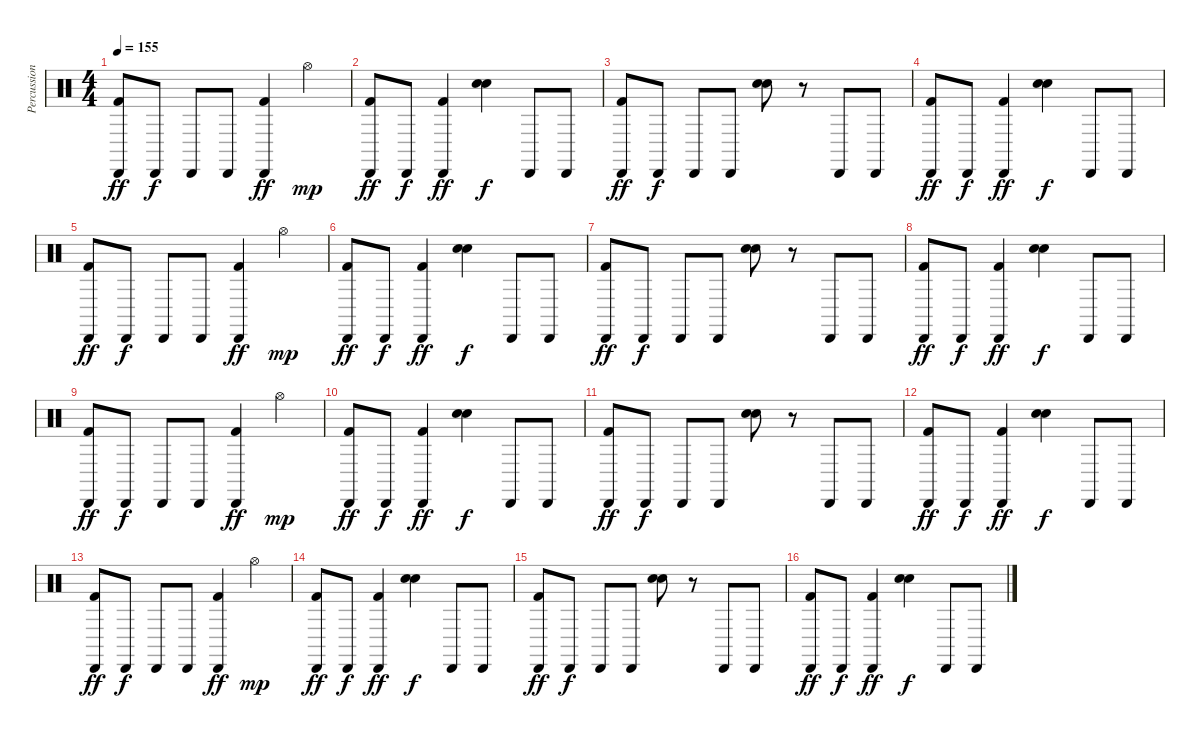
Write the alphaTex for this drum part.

\track ("Percussion" "Percussion") {instrument percussion}
\staff {score}
\articulation defaults
\ts (4 4)
\tempo 155
\clef neutral
\ks c
("Cabasa (hit)" "Kick (hit) 2").8{dy ff} "Cabasa (hit)".8{dy f} "Cabasa (hit)".8 "Cabasa (hit)".8 ("Cabasa (hit)" "Kick (hit) 2").4{dy ff} "Hi-Hat (open)".4{dy mp} |
("Cabasa (hit)" "Kick (hit) 2").8{dy ff} "Cabasa (hit)".8{dy f} ("Cabasa (hit)" "Kick (hit) 2").4{dy ff} ("Electric Snare (hit)" "Hand Clap (hit)").4{dy f} "Cabasa (hit)".8 "Cabasa (hit)".8 |
("Cabasa (hit)" "Kick (hit) 2").8{dy ff} "Cabasa (hit)".8{dy f} "Cabasa (hit)".8 "Cabasa (hit)".8 ("Electric Snare (hit)" "Hand Clap (hit)").8 r.8 "Cabasa (hit)".8 "Cabasa (hit)".8 |
("Cabasa (hit)" "Kick (hit) 2").8{dy ff} "Cabasa (hit)".8{dy f} ("Cabasa (hit)" "Kick (hit) 2").4{dy ff} ("Electric Snare (hit)" "Hand Clap (hit)").4{dy f} "Cabasa (hit)".8 "Cabasa (hit)".8 |
("Cabasa (hit)" "Kick (hit) 2").8{dy ff} "Cabasa (hit)".8{dy f} "Cabasa (hit)".8 "Cabasa (hit)".8 ("Cabasa (hit)" "Kick (hit) 2").4{dy ff} "Hi-Hat (open)".4{dy mp} |
("Cabasa (hit)" "Kick (hit) 2").8{dy ff} "Cabasa (hit)".8{dy f} ("Cabasa (hit)" "Kick (hit) 2").4{dy ff} ("Electric Snare (hit)" "Hand Clap (hit)").4{dy f} "Cabasa (hit)".8 "Cabasa (hit)".8 |
("Cabasa (hit)" "Kick (hit) 2").8{dy ff} "Cabasa (hit)".8{dy f} "Cabasa (hit)".8 "Cabasa (hit)".8 ("Electric Snare (hit)" "Hand Clap (hit)").8 r.8 "Cabasa (hit)".8 "Cabasa (hit)".8 |
("Cabasa (hit)" "Kick (hit) 2").8{dy ff} "Cabasa (hit)".8{dy f} ("Cabasa (hit)" "Kick (hit) 2").4{dy ff} ("Electric Snare (hit)" "Hand Clap (hit)").4{dy f} "Cabasa (hit)".8 "Cabasa (hit)".8 |
("Cabasa (hit)" "Kick (hit) 2").8{dy ff} "Cabasa (hit)".8{dy f} "Cabasa (hit)".8 "Cabasa (hit)".8 ("Cabasa (hit)" "Kick (hit) 2").4{dy ff} "Hi-Hat (open)".4{dy mp} |
("Cabasa (hit)" "Kick (hit) 2").8{dy ff} "Cabasa (hit)".8{dy f} ("Cabasa (hit)" "Kick (hit) 2").4{dy ff} ("Electric Snare (hit)" "Hand Clap (hit)").4{dy f} "Cabasa (hit)".8 "Cabasa (hit)".8 |
("Cabasa (hit)" "Kick (hit) 2").8{dy ff} "Cabasa (hit)".8{dy f} "Cabasa (hit)".8 "Cabasa (hit)".8 ("Electric Snare (hit)" "Hand Clap (hit)").8 r.8 "Cabasa (hit)".8 "Cabasa (hit)".8 |
("Cabasa (hit)" "Kick (hit) 2").8{dy ff} "Cabasa (hit)".8{dy f} ("Cabasa (hit)" "Kick (hit) 2").4{dy ff} ("Electric Snare (hit)" "Hand Clap (hit)").4{dy f} "Cabasa (hit)".8 "Cabasa (hit)".8 |
("Cabasa (hit)" "Kick (hit) 2").8{dy ff} "Cabasa (hit)".8{dy f} "Cabasa (hit)".8 "Cabasa (hit)".8 ("Cabasa (hit)" "Kick (hit) 2").4{dy ff} "Hi-Hat (open)".4{dy mp} |
("Cabasa (hit)" "Kick (hit) 2").8{dy ff} "Cabasa (hit)".8{dy f} ("Cabasa (hit)" "Kick (hit) 2").4{dy ff} ("Electric Snare (hit)" "Hand Clap (hit)").4{dy f} "Cabasa (hit)".8 "Cabasa (hit)".8 |
("Cabasa (hit)" "Kick (hit) 2").8{dy ff} "Cabasa (hit)".8{dy f} "Cabasa (hit)".8 "Cabasa (hit)".8 ("Electric Snare (hit)" "Hand Clap (hit)").8 r.8 "Cabasa (hit)".8 "Cabasa (hit)".8 |
("Cabasa (hit)" "Kick (hit) 2").8{dy ff} "Cabasa (hit)".8{dy f} ("Cabasa (hit)" "Kick (hit) 2").4{dy ff} ("Electric Snare (hit)" "Hand Clap (hit)").4{dy f} "Cabasa (hit)".8 "Cabasa (hit)".8
